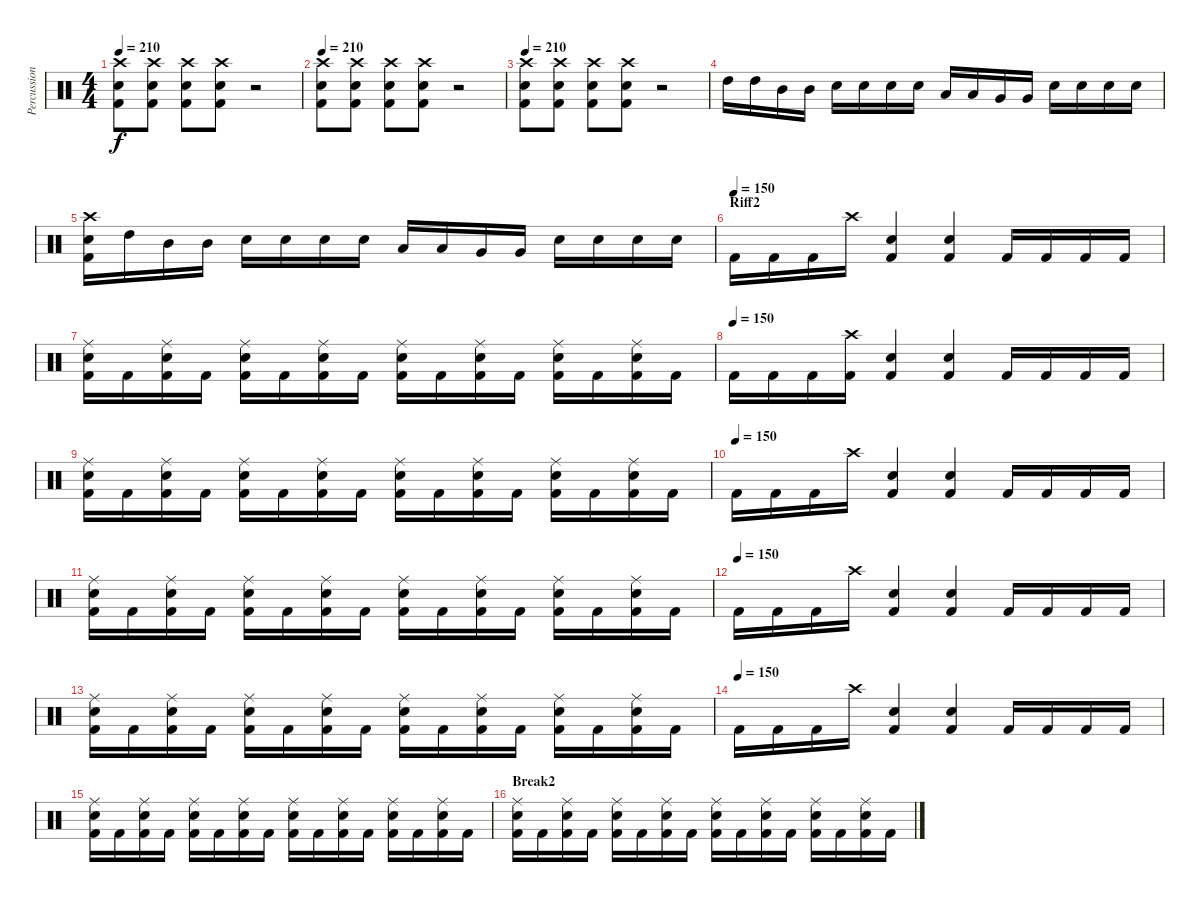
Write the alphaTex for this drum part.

\track ("Percussion" "Percussion") {instrument percussion}
\staff {score}
\articulation defaults
\ts (4 4)
\tempo 210
\clef neutral
\ks c
("Crash high (hit)" "Snare (hit) 2" "Kick (hit) 2").8{dy f} ("Crash high (hit)" "Snare (hit) 2" "Kick (hit) 2").8 ("Crash high (hit)" "Snare (hit) 2" "Kick (hit) 2").8 ("Crash high (hit)" "Snare (hit) 2" "Kick (hit) 2").8 r.2 |
\tempo 210
("Crash high (hit)" "Snare (hit) 2" "Kick (hit) 2").8 ("Crash high (hit)" "Snare (hit) 2" "Kick (hit) 2").8 ("Crash high (hit)" "Snare (hit) 2" "Kick (hit) 2").8 ("Crash high (hit)" "Snare (hit) 2" "Kick (hit) 2").8 r.2 |
\tempo 210
("Crash high (hit)" "Snare (hit) 2" "Kick (hit) 2").8 ("Crash high (hit)" "Snare (hit) 2" "Kick (hit) 2").8 ("Crash high (hit)" "Snare (hit) 2" "Kick (hit) 2").8 ("Crash high (hit)" "Snare (hit) 2" "Kick (hit) 2").8 r.2 |
"High Tom (hit)".16 "High Tom (hit)".16 "Mid Tom (hit)".16 "Mid Tom (hit)".16 "Snare (hit) 2".16 "Snare (hit) 2".16 "Snare (hit) 2".16 "Snare (hit) 2".16 "Low Tom (hit)".16 "Low Tom (hit)".16 "Very Low Tom (hit)".16 "Very Low Tom (hit)".16 "Snare (hit) 2".16 "Snare (hit) 2".16 "Snare (hit) 2".16 "Snare (hit) 2".16 |
("Crash high (hit)" "Snare (hit) 2" "Kick (hit) 2").16 "High Tom (hit)".16 "Mid Tom (hit)".16 "Mid Tom (hit)".16 "Snare (hit) 2".16 "Snare (hit) 2".16 "Snare (hit) 2".16 "Snare (hit) 2".16 "Low Tom (hit)".16 "Low Tom (hit)".16 "Very Low Tom (hit)".16 "Very Low Tom (hit)".16 "Snare (hit) 2".16 "Snare (hit) 2".16 "Snare (hit) 2".16 "Snare (hit) 2".16 |
\section ("" "Riff2")
\tempo (150)
"Kick (hit) 2".16 "Kick (hit) 2".16 "Kick (hit) 2".16 "Crash high (hit)".16 ("Snare (hit) 2" "Kick (hit) 2").4 ("Snare (hit) 2" "Kick (hit) 2").4 "Kick (hit) 2".16 "Kick (hit) 2".16 "Kick (hit) 2".16 "Kick (hit) 2".16 |
("Ride (middle)" "Snare (hit) 2" "Kick (hit) 2").16 "Kick (hit) 2".16 ("Ride (middle)" "Snare (hit) 2" "Kick (hit) 2").16 "Kick (hit) 2".16 ("Ride (middle)" "Snare (hit) 2" "Kick (hit) 2").16 "Kick (hit) 2".16 ("Ride (middle)" "Snare (hit) 2" "Kick (hit) 2").16 "Kick (hit) 2".16 ("Ride (middle)" "Snare (hit) 2" "Kick (hit) 2").16 "Kick (hit) 2".16 ("Ride (middle)" "Snare (hit) 2" "Kick (hit) 2").16 "Kick (hit) 2".16 ("Ride (middle)" "Snare (hit) 2" "Kick (hit) 2").16 "Kick (hit) 2".16 ("Ride (middle)" "Snare (hit) 2" "Kick (hit) 2").16 "Kick (hit) 2".16 |
\tempo (150)
"Kick (hit) 2".16 "Kick (hit) 2".16 "Kick (hit) 2".16 ("Crash high (hit)" "Kick (hit) 2").16 ("Snare (hit) 2" "Kick (hit) 2").4 ("Snare (hit) 2" "Kick (hit) 2").4 "Kick (hit) 2".16 "Kick (hit) 2".16 "Kick (hit) 2".16 "Kick (hit) 2".16 |
("Ride (middle)" "Snare (hit) 2" "Kick (hit) 2").16 "Kick (hit) 2".16 ("Ride (middle)" "Snare (hit) 2" "Kick (hit) 2").16 "Kick (hit) 2".16 ("Ride (middle)" "Snare (hit) 2" "Kick (hit) 2").16 "Kick (hit) 2".16 ("Ride (middle)" "Snare (hit) 2" "Kick (hit) 2").16 "Kick (hit) 2".16 ("Ride (middle)" "Snare (hit) 2" "Kick (hit) 2").16 "Kick (hit) 2".16 ("Ride (middle)" "Snare (hit) 2" "Kick (hit) 2").16 "Kick (hit) 2".16 ("Ride (middle)" "Snare (hit) 2" "Kick (hit) 2").16 "Kick (hit) 2".16 ("Ride (middle)" "Snare (hit) 2" "Kick (hit) 2").16 "Kick (hit) 2".16 |
\tempo (150)
"Kick (hit) 2".16 "Kick (hit) 2".16 "Kick (hit) 2".16 "Crash high (hit)".16 ("Snare (hit) 2" "Kick (hit) 2").4 ("Snare (hit) 2" "Kick (hit) 2").4 "Kick (hit) 2".16 "Kick (hit) 2".16 "Kick (hit) 2".16 "Kick (hit) 2".16 |
("Ride (middle)" "Snare (hit) 2" "Kick (hit) 2").16 "Kick (hit) 2".16 ("Ride (middle)" "Snare (hit) 2" "Kick (hit) 2").16 "Kick (hit) 2".16 ("Ride (middle)" "Snare (hit) 2" "Kick (hit) 2").16 "Kick (hit) 2".16 ("Ride (middle)" "Snare (hit) 2" "Kick (hit) 2").16 "Kick (hit) 2".16 ("Ride (middle)" "Snare (hit) 2" "Kick (hit) 2").16 "Kick (hit) 2".16 ("Ride (middle)" "Snare (hit) 2" "Kick (hit) 2").16 "Kick (hit) 2".16 ("Ride (middle)" "Snare (hit) 2" "Kick (hit) 2").16 "Kick (hit) 2".16 ("Ride (middle)" "Snare (hit) 2" "Kick (hit) 2").16 "Kick (hit) 2".16 |
\tempo (150)
"Kick (hit) 2".16 "Kick (hit) 2".16 "Kick (hit) 2".16 "Crash high (hit)".16 ("Snare (hit) 2" "Kick (hit) 2").4 ("Snare (hit) 2" "Kick (hit) 2").4 "Kick (hit) 2".16 "Kick (hit) 2".16 "Kick (hit) 2".16 "Kick (hit) 2".16 |
("Ride (middle)" "Snare (hit) 2" "Kick (hit) 2").16 "Kick (hit) 2".16 ("Ride (middle)" "Snare (hit) 2" "Kick (hit) 2").16 "Kick (hit) 2".16 ("Ride (middle)" "Snare (hit) 2" "Kick (hit) 2").16 "Kick (hit) 2".16 ("Ride (middle)" "Snare (hit) 2" "Kick (hit) 2").16 "Kick (hit) 2".16 ("Ride (middle)" "Snare (hit) 2" "Kick (hit) 2").16 "Kick (hit) 2".16 ("Ride (middle)" "Snare (hit) 2" "Kick (hit) 2").16 "Kick (hit) 2".16 ("Ride (middle)" "Snare (hit) 2" "Kick (hit) 2").16 "Kick (hit) 2".16 ("Ride (middle)" "Snare (hit) 2" "Kick (hit) 2").16 "Kick (hit) 2".16 |
\tempo (150)
"Kick (hit) 2".16 "Kick (hit) 2".16 "Kick (hit) 2".16 "Crash high (hit)".16 ("Snare (hit) 2" "Kick (hit) 2").4 ("Snare (hit) 2" "Kick (hit) 2").4 "Kick (hit) 2".16 "Kick (hit) 2".16 "Kick (hit) 2".16 "Kick (hit) 2".16 |
("Ride (middle)" "Snare (hit) 2" "Kick (hit) 2").16 "Kick (hit) 2".16 ("Ride (middle)" "Snare (hit) 2" "Kick (hit) 2").16 "Kick (hit) 2".16 ("Ride (middle)" "Snare (hit) 2" "Kick (hit) 2").16 "Kick (hit) 2".16 ("Ride (middle)" "Snare (hit) 2" "Kick (hit) 2").16 "Kick (hit) 2".16 ("Ride (middle)" "Snare (hit) 2" "Kick (hit) 2").16 "Kick (hit) 2".16 ("Ride (middle)" "Snare (hit) 2" "Kick (hit) 2").16 "Kick (hit) 2".16 ("Ride (middle)" "Snare (hit) 2" "Kick (hit) 2").16 "Kick (hit) 2".16 ("Ride (middle)" "Snare (hit) 2" "Kick (hit) 2").16 "Kick (hit) 2".16 |
\section ("" "Break2")
("Ride (middle)" "Snare (hit) 2" "Kick (hit) 2").16 "Kick (hit) 2".16 ("Ride (middle)" "Snare (hit) 2" "Kick (hit) 2").16 "Kick (hit) 2".16 ("Ride (middle)" "Snare (hit) 2" "Kick (hit) 2").16 "Kick (hit) 2".16 ("Ride (middle)" "Snare (hit) 2" "Kick (hit) 2").16 "Kick (hit) 2".16 ("Ride (middle)" "Snare (hit) 2" "Kick (hit) 2").16 "Kick (hit) 2".16 ("Ride (middle)" "Snare (hit) 2" "Kick (hit) 2").16 "Kick (hit) 2".16 ("Ride (middle)" "Snare (hit) 2" "Kick (hit) 2").16 "Kick (hit) 2".16 ("Ride (middle)" "Snare (hit) 2" "Kick (hit) 2").16 "Kick (hit) 2".16
